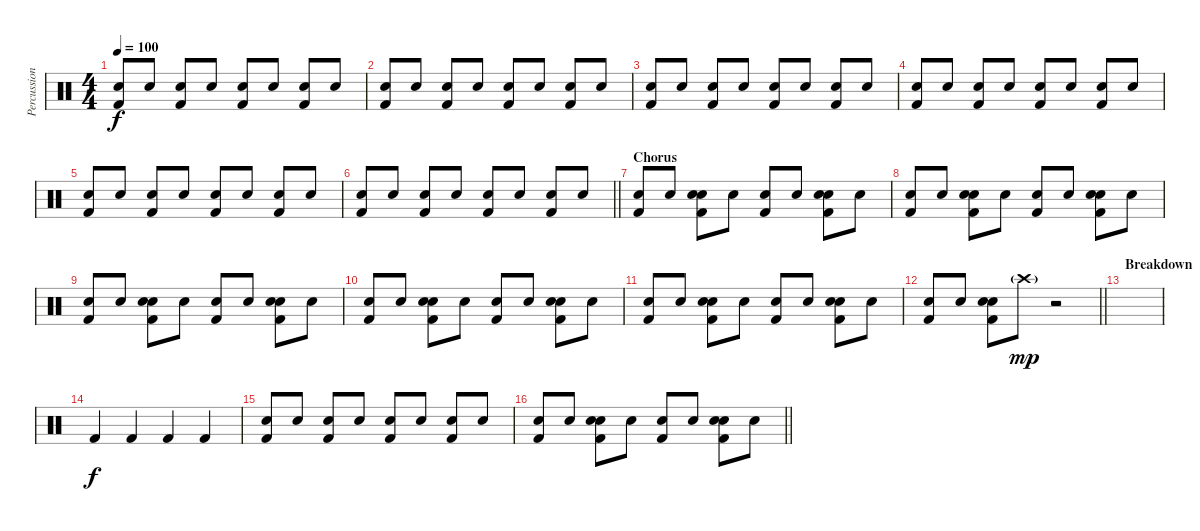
\track ("Percussion" "Percussion") {instrument percussion}
\staff {score}
\articulation defaults
\ts (4 4)
\tempo 100
\clef neutral
\ks c
("Snare (hit) 2" "Kick (hit) 2").8{dy f} "Snare (hit) 2".8 ("Snare (hit) 2" "Kick (hit) 2").8 "Snare (hit) 2".8 ("Snare (hit) 2" "Kick (hit) 2").8 "Snare (hit) 2".8 ("Snare (hit) 2" "Kick (hit) 2").8 "Snare (hit) 2".8 |
("Snare (hit) 2" "Kick (hit) 2").8 "Snare (hit) 2".8 ("Snare (hit) 2" "Kick (hit) 2").8 "Snare (hit) 2".8 ("Snare (hit) 2" "Kick (hit) 2").8 "Snare (hit) 2".8 ("Snare (hit) 2" "Kick (hit) 2").8 "Snare (hit) 2".8 |
("Snare (hit) 2" "Kick (hit) 2").8 "Snare (hit) 2".8 ("Snare (hit) 2" "Kick (hit) 2").8 "Snare (hit) 2".8 ("Snare (hit) 2" "Kick (hit) 2").8 "Snare (hit) 2".8 ("Snare (hit) 2" "Kick (hit) 2").8 "Snare (hit) 2".8 |
("Snare (hit) 2" "Kick (hit) 2").8 "Snare (hit) 2".8 ("Snare (hit) 2" "Kick (hit) 2").8 "Snare (hit) 2".8 ("Snare (hit) 2" "Kick (hit) 2").8 "Snare (hit) 2".8 ("Snare (hit) 2" "Kick (hit) 2").8 "Snare (hit) 2".8 |
("Snare (hit) 2" "Kick (hit) 2").8 "Snare (hit) 2".8 ("Snare (hit) 2" "Kick (hit) 2").8 "Snare (hit) 2".8 ("Snare (hit) 2" "Kick (hit) 2").8 "Snare (hit) 2".8 ("Snare (hit) 2" "Kick (hit) 2").8 "Snare (hit) 2".8 |
\barLineRight lightlight
("Snare (hit) 2" "Kick (hit) 2").8 "Snare (hit) 2".8 ("Snare (hit) 2" "Kick (hit) 2").8 "Snare (hit) 2".8 ("Snare (hit) 2" "Kick (hit) 2").8 "Snare (hit) 2".8 ("Snare (hit) 2" "Kick (hit) 2").8 "Snare (hit) 2".8 |
\section ("" "Chorus")
("Snare (hit) 2" "Kick (hit) 2").8 "Snare (hit) 2".8 ("Hand Clap (hit)" "Snare (hit) 2" "Kick (hit) 2").8 "Snare (hit) 2".8 ("Snare (hit) 2" "Kick (hit) 2").8 "Snare (hit) 2".8 ("Hand Clap (hit)" "Snare (hit) 2" "Kick (hit) 2").8 "Snare (hit) 2".8 |
("Snare (hit) 2" "Kick (hit) 2").8 "Snare (hit) 2".8 ("Hand Clap (hit)" "Snare (hit) 2" "Kick (hit) 2").8 "Snare (hit) 2".8 ("Snare (hit) 2" "Kick (hit) 2").8 "Snare (hit) 2".8 ("Hand Clap (hit)" "Snare (hit) 2" "Kick (hit) 2").8 "Snare (hit) 2".8 |
("Snare (hit) 2" "Kick (hit) 2").8 "Snare (hit) 2".8 ("Hand Clap (hit)" "Snare (hit) 2" "Kick (hit) 2").8 "Snare (hit) 2".8 ("Snare (hit) 2" "Kick (hit) 2").8 "Snare (hit) 2".8 ("Hand Clap (hit)" "Snare (hit) 2" "Kick (hit) 2").8 "Snare (hit) 2".8 |
("Snare (hit) 2" "Kick (hit) 2").8 "Snare (hit) 2".8 ("Hand Clap (hit)" "Snare (hit) 2" "Kick (hit) 2").8 "Snare (hit) 2".8 ("Snare (hit) 2" "Kick (hit) 2").8 "Snare (hit) 2".8 ("Hand Clap (hit)" "Snare (hit) 2" "Kick (hit) 2").8 "Snare (hit) 2".8 |
("Snare (hit) 2" "Kick (hit) 2").8 "Snare (hit) 2".8 ("Hand Clap (hit)" "Snare (hit) 2" "Kick (hit) 2").8 "Snare (hit) 2".8 ("Snare (hit) 2" "Kick (hit) 2").8 "Snare (hit) 2".8 ("Hand Clap (hit)" "Snare (hit) 2" "Kick (hit) 2").8 "Snare (hit) 2".8 |
\barLineRight lightlight
("Snare (hit) 2" "Kick (hit) 2").8 "Snare (hit) 2".8 ("Hand Clap (hit)" "Snare (hit) 2" "Kick (hit) 2").8 "Crash high (hit)"{g}.8{dy mp} r.2 |
\section ("" "Breakdown")
|
"Kick (hit) 2".4{dy f} "Kick (hit) 2".4 "Kick (hit) 2".4 "Kick (hit) 2".4 |
("Snare (hit) 2" "Kick (hit) 2").8 "Snare (hit) 2".8 ("Snare (hit) 2" "Kick (hit) 2").8 "Snare (hit) 2".8 ("Snare (hit) 2" "Kick (hit) 2").8 "Snare (hit) 2".8 ("Snare (hit) 2" "Kick (hit) 2").8 "Snare (hit) 2".8 |
\barLineRight lightlight
("Snare (hit) 2" "Kick (hit) 2").8 "Snare (hit) 2".8 ("Hand Clap (hit)" "Snare (hit) 2" "Kick (hit) 2").8 "Snare (hit) 2".8 ("Snare (hit) 2" "Kick (hit) 2").8 "Snare (hit) 2".8 ("Hand Clap (hit)" "Snare (hit) 2" "Kick (hit) 2").8 "Snare (hit) 2".8
